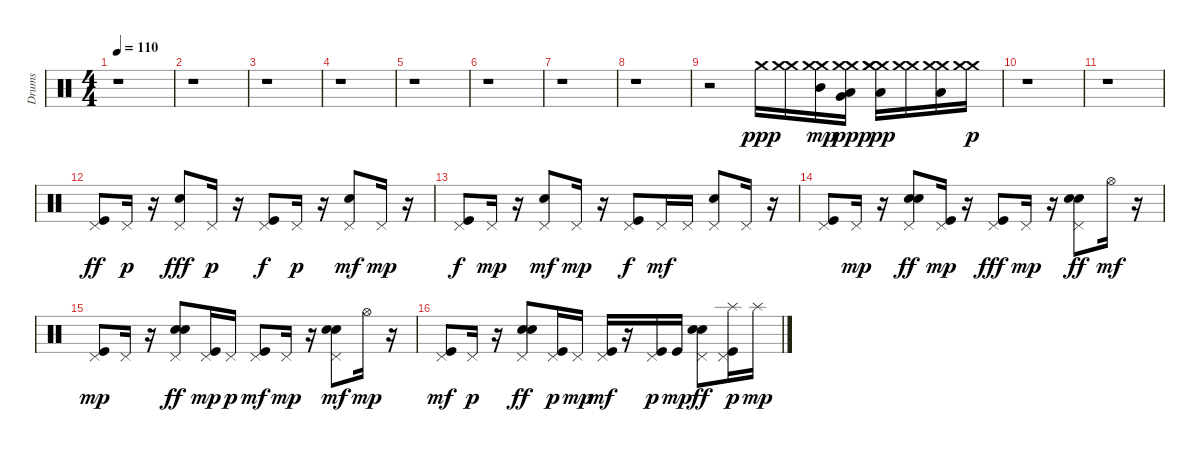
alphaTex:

\track ("Drums" "Drums") {instrument percussion}
\staff {score}
\articulation defaults
\ts (4 4)
\tempo 110
\clef neutral
\ks c
r.1{dy mp} |
r.1 |
r.1 |
r.1 |
r.1 |
r.1 |
r.1 |
r.1 |
r.2 "Crash medium (hit)".16{dy ppp} ("Crash medium (hit)" "Crash medium (hit)").16 ("Crash medium (hit)" "Crash medium (hit)" "Mid Tom (hit)").16{dy mp} ("Low Tom (hit)" "Crash medium (hit)" "Very Low Tom (hit)" "Crash medium (hit)").16{dy ppp} ("Crash medium (hit)" "Low Floor Tom (hit)" "Crash medium (hit)" "Crash medium (hit)").16{dy pp} ("Crash medium (hit)" "Crash medium (hit)").16 ("Crash medium (hit)" "Low Floor Tom (hit)" "Crash medium (hit)").16 ("Crash medium (hit)" "Crash medium (hit)").16{dy p} |
r.1 |
r.1 |
("Kick (hit)" "Pedal Hi-Hat (hit)").8{dy ff} "Pedal Hi-Hat (hit)".16{dy p} r.16 ("Hand Clap (hit)" "Pedal Hi-Hat (hit)").8{dy fff} "Pedal Hi-Hat (hit)".16{dy p} r.16 ("Kick (hit)" "Pedal Hi-Hat (hit)").8{dy f} "Pedal Hi-Hat (hit)".16{dy p} r.16 ("Hand Clap (hit)" "Pedal Hi-Hat (hit)").8{dy mf} "Pedal Hi-Hat (hit)".16{dy mp} r.16 |
("Kick (hit)" "Pedal Hi-Hat (hit)").8{dy f} "Pedal Hi-Hat (hit)".16{dy mp} r.16 ("Hand Clap (hit)" "Pedal Hi-Hat (hit)").8{dy mf} "Pedal Hi-Hat (hit)".16{dy mp} r.16 ("Kick (hit)" "Pedal Hi-Hat (hit)").8{dy f} "Pedal Hi-Hat (hit)".16{dy mf} "Pedal Hi-Hat (hit)".16 ("Hand Clap (hit)" "Pedal Hi-Hat (hit)").8 "Pedal Hi-Hat (hit)".16 r.16 |
("Kick (hit)" "Pedal Hi-Hat (hit)").8 "Pedal Hi-Hat (hit)".16{dy mp} r.16 ("Snare (hit) 2" "Hand Clap (hit)" "Pedal Hi-Hat (hit)").8{dy ff} ("Kick (hit)" "Pedal Hi-Hat (hit)").16{dy mp} r.16 ("Kick (hit)" "Pedal Hi-Hat (hit)").8{dy fff} "Pedal Hi-Hat (hit)".16{dy mp} r.16 ("Snare (hit) 2" "Hand Clap (hit)" "Pedal Hi-Hat (hit)").8{dy ff} "Hi-Hat (open)".16{dy mf} r.16 |
("Kick (hit)" "Pedal Hi-Hat (hit)").8{dy mp} "Pedal Hi-Hat (hit)".16 r.16 ("Snare (hit) 2" "Hand Clap (hit)" "Pedal Hi-Hat (hit)").8{dy ff} ("Kick (hit)" "Pedal Hi-Hat (hit)").16{dy mp} "Pedal Hi-Hat (hit)".16{dy p} ("Kick (hit)" "Pedal Hi-Hat (hit)").8{dy mf} "Pedal Hi-Hat (hit)".16{dy mp} r.16 ("Snare (hit) 2" "Hand Clap (hit)" "Pedal Hi-Hat (hit)").8{dy mf} "Hi-Hat (open)".16{dy mp} r.16 |
("Kick (hit)" "Pedal Hi-Hat (hit)").8{dy mf} "Pedal Hi-Hat (hit)".16{dy p} r.16 ("Snare (hit) 2" "Hand Clap (hit)" "Pedal Hi-Hat (hit)").8{dy ff} ("Kick (hit)" "Pedal Hi-Hat (hit)").16{dy p} "Pedal Hi-Hat (hit)".16{dy mp} ("Kick (hit)" "Pedal Hi-Hat (hit)").16{dy mf} r.16 ("Kick (hit)" "Pedal Hi-Hat (hit)").16{dy p} "Kick (hit)".16{dy mp} ("Snare (hit) 2" "Hand Clap (hit)" "Pedal Hi-Hat (hit)").8{dy ff} ("Kick (hit)" "Pedal Hi-Hat (hit)" "Splash (hit)").16{dy p} "Splash (hit)".16{dy mp}
